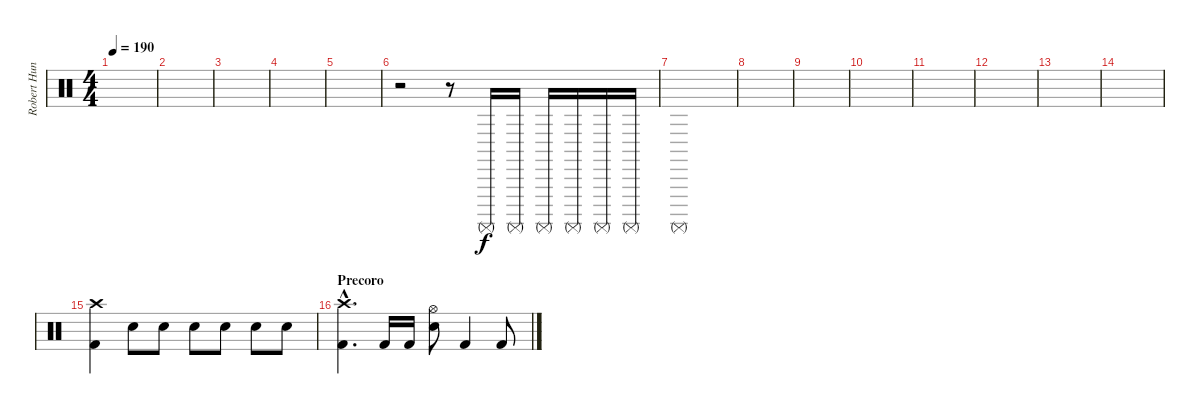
\track ("Robert Hunecke" "Robert Hun") {instrument percussion}
\staff {score}
\articulation defaults
\ts (4 4)
\tempo 190
\clef neutral
\ks c
|
|
|
|
|
r.2{volume 0} r.8 "Surdo (mute)".16{volume 16} "Surdo (mute)".16 "Surdo (mute)".16 "Surdo (mute)".16 "Surdo (mute)".16 "Surdo (mute)".16 |
"Surdo (mute)".1 |
|
|
|
|
|
|
|
("Kick (hit) 2" "Crash high (hit)").4{volume 16} "Electric Snare (hit)".8 "Electric Snare (hit)".8 "Electric Snare (hit)".8 "Electric Snare (hit)".8 "Electric Snare (hit)".8 "Electric Snare (hit)".8 |
\section ("" "Precoro")
("Kick (hit) 2"{hac} "Crash high (hit)"{hac}).4{d} "Kick (hit) 2".16 "Kick (hit) 2".16 ("Electric Snare (hit)" "Hi-Hat (open)").8 "Kick (hit) 2".4 "Kick (hit) 2".8
